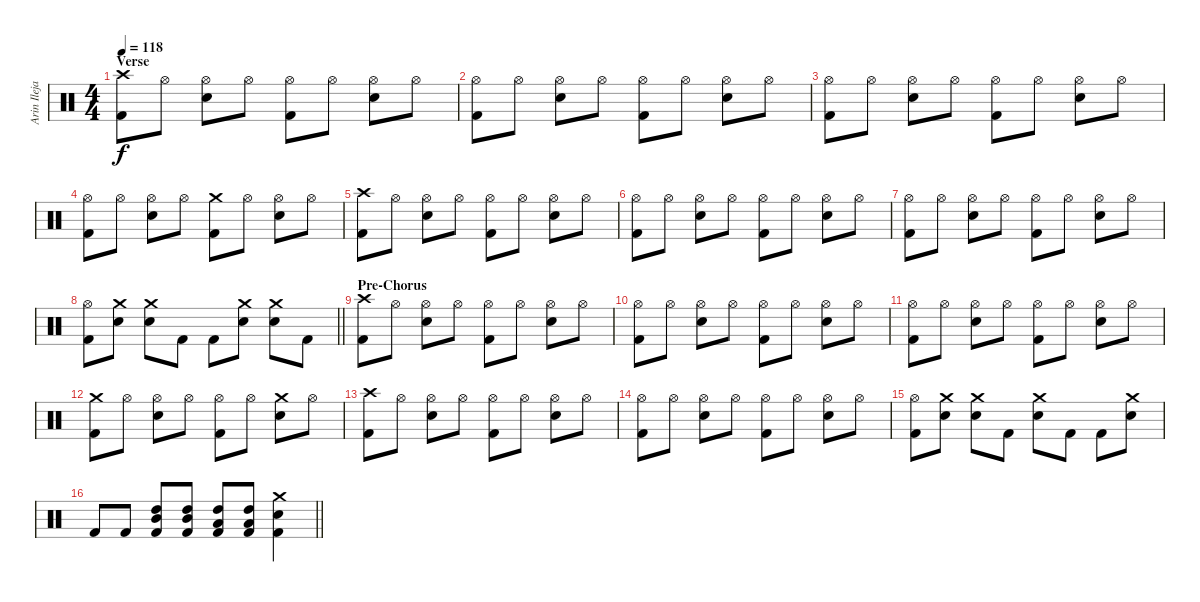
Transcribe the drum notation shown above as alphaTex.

\track ("Arin Ilejay" "Arin Ileja") {instrument percussion bank 164}
\staff {score}
\articulation defaults
\ts (4 4)
\section ("" "Verse")
\tempo 118
\clef neutral
\ks c
("Crash high (hit)" "Kick (hit) 2").8{dy f} "Hi-Hat (open)".8 ("Hi-Hat (open)" "Electric Snare (hit)").8 "Hi-Hat (open)".8 ("Hi-Hat (open)" "Kick (hit) 2").8 "Hi-Hat (open)".8 ("Hi-Hat (open)" "Electric Snare (hit)").8 "Hi-Hat (open)".8 |
("Hi-Hat (open)" "Kick (hit) 2").8 "Hi-Hat (open)".8 ("Hi-Hat (open)" "Electric Snare (hit)").8 "Hi-Hat (open)".8 ("Hi-Hat (open)" "Kick (hit) 2").8 "Hi-Hat (open)".8 ("Hi-Hat (open)" "Electric Snare (hit)").8 "Hi-Hat (open)".8 |
("Hi-Hat (open)" "Kick (hit) 2").8 "Hi-Hat (open)".8 ("Hi-Hat (open)" "Electric Snare (hit)").8 "Hi-Hat (open)".8 ("Hi-Hat (open)" "Kick (hit) 2").8 "Hi-Hat (open)".8 ("Hi-Hat (open)" "Electric Snare (hit)").8 "Hi-Hat (open)".8 |
("Hi-Hat (open)" "Kick (hit) 2").8 "Hi-Hat (open)".8 ("Hi-Hat (open)" "Electric Snare (hit)").8 "Hi-Hat (open)".8 ("Crash medium (hit)" "Kick (hit) 2").8 "Hi-Hat (open)".8 ("Hi-Hat (open)" "Electric Snare (hit)").8 "Hi-Hat (open)".8 |
("Crash high (hit)" "Kick (hit) 2").8 "Hi-Hat (open)".8 ("Hi-Hat (open)" "Electric Snare (hit)").8 "Hi-Hat (open)".8 ("Hi-Hat (open)" "Kick (hit) 2").8 "Hi-Hat (open)".8 ("Hi-Hat (open)" "Electric Snare (hit)").8 "Hi-Hat (open)".8 |
("Hi-Hat (open)" "Kick (hit) 2").8 "Hi-Hat (open)".8 ("Hi-Hat (open)" "Electric Snare (hit)").8 "Hi-Hat (open)".8 ("Hi-Hat (open)" "Kick (hit) 2").8 "Hi-Hat (open)".8 ("Hi-Hat (open)" "Electric Snare (hit)").8 "Hi-Hat (open)".8 |
("Hi-Hat (open)" "Kick (hit) 2").8 "Hi-Hat (open)".8 ("Hi-Hat (open)" "Electric Snare (hit)").8 "Hi-Hat (open)".8 ("Hi-Hat (open)" "Kick (hit) 2").8 "Hi-Hat (open)".8 ("Hi-Hat (open)" "Electric Snare (hit)").8 "Hi-Hat (open)".8 |
\barLineRight lightlight
("Hi-Hat (open)" "Kick (hit) 2").8 ("Crash medium (hit)" "Electric Snare (hit)").8 ("Crash medium (hit)" "Electric Snare (hit)").8 "Kick (hit) 2".8 "Kick (hit) 2".8 ("Crash medium (hit)" "Electric Snare (hit)").8 ("Crash medium (hit)" "Electric Snare (hit)").8 "Kick (hit) 2".8 |
\section ("" "Pre-Chorus")
("Crash high (hit)" "Kick (hit) 2").8 "Hi-Hat (open)".8 ("Hi-Hat (open)" "Electric Snare (hit)").8 "Hi-Hat (open)".8 ("Hi-Hat (open)" "Kick (hit) 2").8 "Hi-Hat (open)".8 ("Hi-Hat (open)" "Electric Snare (hit)").8 "Hi-Hat (open)".8 |
("Hi-Hat (open)" "Kick (hit) 2").8 "Hi-Hat (open)".8 ("Hi-Hat (open)" "Electric Snare (hit)").8 "Hi-Hat (open)".8 ("Hi-Hat (open)" "Kick (hit) 2").8 "Hi-Hat (open)".8 ("Hi-Hat (open)" "Electric Snare (hit)").8 "Hi-Hat (open)".8 |
("Hi-Hat (open)" "Kick (hit) 2").8 "Hi-Hat (open)".8 ("Hi-Hat (open)" "Electric Snare (hit)").8 "Hi-Hat (open)".8 ("Hi-Hat (open)" "Kick (hit) 2").8 "Hi-Hat (open)".8 ("Hi-Hat (open)" "Electric Snare (hit)").8 "Hi-Hat (open)".8 |
("Crash medium (hit)" "Kick (hit) 2").8 "Hi-Hat (open)".8 ("Hi-Hat (open)" "Electric Snare (hit)").8 "Hi-Hat (open)".8 ("Hi-Hat (open)" "Kick (hit) 2").8 "Hi-Hat (open)".8 ("Crash medium (hit)" "Electric Snare (hit)").8 "Hi-Hat (open)".8 |
("Crash high (hit)" "Kick (hit) 2").8 "Hi-Hat (open)".8 ("Hi-Hat (open)" "Electric Snare (hit)").8 "Hi-Hat (open)".8 ("Hi-Hat (open)" "Kick (hit) 2").8 "Hi-Hat (open)".8 ("Hi-Hat (open)" "Electric Snare (hit)").8 "Hi-Hat (open)".8 |
("Hi-Hat (open)" "Kick (hit) 2").8 "Hi-Hat (open)".8 ("Hi-Hat (open)" "Electric Snare (hit)").8 "Hi-Hat (open)".8 ("Hi-Hat (open)" "Kick (hit) 2").8 "Hi-Hat (open)".8 ("Hi-Hat (open)" "Electric Snare (hit)").8 "Hi-Hat (open)".8 |
("Hi-Hat (open)" "Kick (hit) 2").8 ("Crash medium (hit)" "Electric Snare (hit)").8 ("Crash medium (hit)" "Electric Snare (hit)").8 "Kick (hit) 2".8 ("Crash medium (hit)" "Electric Snare (hit)").8 "Kick (hit) 2".8 "Kick (hit) 2".8 ("Crash medium (hit)" "Electric Snare (hit)").8 |
\barLineRight lightlight "Kick (hit) 2".8 "Kick (hit) 2".8
("Mid Tom (hit)" "High Tom (hit)" "Kick (hit) 2").8 ("Mid Tom (hit)" "High Tom (hit)" "Kick (hit) 2").8 ("Low Tom (hit)" "High Tom (hit)" "Kick (hit) 2").8 ("Low Tom (hit)" "High Tom (hit)" "Kick (hit) 2").8 ("Crash medium (hit)" "Electric Snare (hit)" "Kick (hit) 2").4
